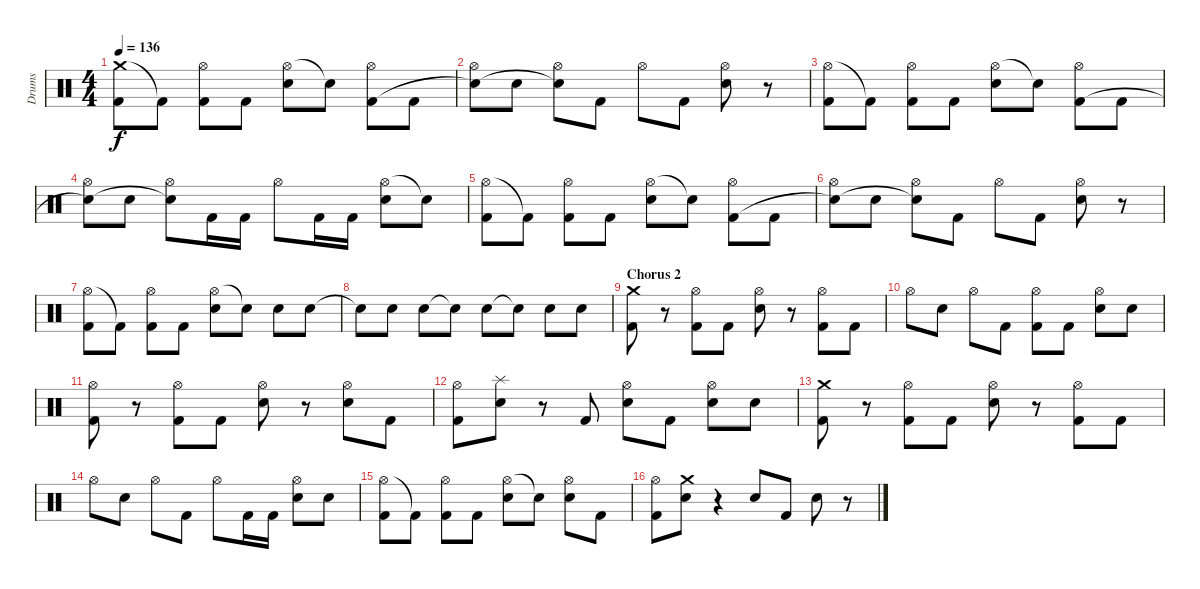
\track ("Drums" "Drums") {instrument percussion}
\staff {score}
\articulation defaults
\ts (4 4)
\tempo 136
\clef neutral
\ks c
("Crash medium (hit)" "Kick (hit) 2").8{dy f} "Kick (hit) 2"{t}.8 ("Hi-Hat (open)" "Kick (hit) 2").8 "Kick (hit) 2".8 ("Hi-Hat (open)" "Electric Snare (hit)").8 "Snare (hit)"{t}.8 ("Hi-Hat (open)" "Kick (hit) 2").8 "Kick (hit) 2".8 |
("Hi-Hat (open)" "Snare (hit)"{t}).8 "Electric Snare (hit)".8 ("Hi-Hat (open)" "Snare (hit)"{t}).8 "Kick (hit) 2".8 "Hi-Hat (open)".8 "Kick (hit) 2".8 ("Hi-Hat (open)" "Electric Snare (hit)").8 r.8 |
("Hi-Hat (open)" "Kick (hit) 2").8 "Kick (hit) 2"{t}.8 ("Hi-Hat (open)" "Kick (hit) 2").8 "Kick (hit) 2".8 ("Hi-Hat (open)" "Electric Snare (hit)").8 "Snare (hit)"{t}.8 ("Hi-Hat (open)" "Kick (hit) 2").8 "Kick (hit) 2".8 |
("Hi-Hat (open)" "Snare (hit)"{t}).8 "Electric Snare (hit)".8 ("Hi-Hat (open)" "Snare (hit)"{t}).8 "Kick (hit) 2".16 "Kick (hit) 2".16 "Hi-Hat (open)".8 "Kick (hit) 2".16 "Kick (hit) 2".16 ("Hi-Hat (open)" "Electric Snare (hit)").8 "Electric Snare (hit)"{t}.8 |
("Hi-Hat (open)" "Kick (hit) 2").8 "Kick (hit) 2"{t}.8 ("Hi-Hat (open)" "Kick (hit) 2").8 "Kick (hit) 2".8 ("Hi-Hat (open)" "Electric Snare (hit)").8 "Snare (hit)"{t}.8 ("Hi-Hat (open)" "Kick (hit) 2").8 "Kick (hit) 2".8 |
("Hi-Hat (open)" "Snare (hit)"{t}).8 "Electric Snare (hit)".8 ("Hi-Hat (open)" "Snare (hit)"{t}).8 "Kick (hit) 2".8 "Hi-Hat (open)".8 "Kick (hit) 2".8 ("Hi-Hat (open)" "Electric Snare (hit)").8 r.8 |
("Hi-Hat (open)" "Kick (hit) 2").8 "Kick (hit) 2"{t}.8 ("Hi-Hat (open)" "Kick (hit) 2").8 "Kick (hit) 2".8 ("Hi-Hat (open)" "Electric Snare (hit)").8 "Snare (hit)"{t}.8 "Electric Snare (hit)".8 "Electric Snare (hit)".8 |
"Snare (hit)"{t}.8 "Electric Snare (hit)".8 "Electric Snare (hit)".8 "Snare (hit)"{t}.8 "Electric Snare (hit)".8 "Snare (hit)"{t}.8 "Electric Snare (hit)".8 "Electric Snare (hit)".8 |
\section ("" "Chorus 2")
("Crash medium (hit)" "Kick (hit) 2").8 r.8 ("Hi-Hat (open)" "Kick (hit) 2").8 "Kick (hit) 2".8 ("Hi-Hat (open)" "Electric Snare (hit)").8 r.8 ("Hi-Hat (open)" "Kick (hit) 2").8 "Kick (hit) 2".8 |
"Hi-Hat (open)".8 "Electric Snare (hit)".8 "Hi-Hat (open)".8 "Kick (hit) 2".8 ("Hi-Hat (open)" "Kick (hit) 2").8 "Kick (hit) 2".8 ("Hi-Hat (open)" "Electric Snare (hit)").8 "Electric Snare (hit)".8 |
("Hi-Hat (open)" "Kick (hit) 2").8 r.8 ("Hi-Hat (open)" "Kick (hit) 2").8 "Kick (hit) 2".8 ("Hi-Hat (open)" "Electric Snare (hit)").8 r.8 ("Hi-Hat (open)" "Electric Snare (hit)").8 "Kick (hit) 2".8 |
("Hi-Hat (open)" "Kick (hit) 2").8 ("Splash (hit)" "Electric Snare (hit)").8 r.8 "Kick (hit) 2".8 ("Hi-Hat (open)" "Electric Snare (hit)").8 "Kick (hit) 2".8 ("Hi-Hat (open)" "Electric Snare (hit)").8 "Electric Snare (hit)".8 |
("Crash medium (hit)" "Kick (hit) 2").8 r.8 ("Hi-Hat (open)" "Kick (hit) 2").8 "Kick (hit) 2".8 ("Hi-Hat (open)" "Electric Snare (hit)").8 r.8 ("Hi-Hat (open)" "Kick (hit) 2").8 "Kick (hit) 2".8 |
"Hi-Hat (open)".8 "Electric Snare (hit)".8 "Hi-Hat (open)".8 "Kick (hit) 2".8 "Hi-Hat (open)".8 "Kick (hit) 2".16 "Kick (hit) 2".16 ("Hi-Hat (open)" "Electric Snare (hit)").8 "Electric Snare (hit)".8 |
("Hi-Hat (open)" "Kick (hit) 2").8 "Kick (hit) 2"{t}.8 ("Hi-Hat (open)" "Kick (hit) 2").8 "Kick (hit) 2".8 ("Hi-Hat (open)" "Electric Snare (hit)").8 "Snare (hit)"{t}.8 ("Hi-Hat (open)" "Electric Snare (hit)").8 "Kick (hit) 2".8 |
("Hi-Hat (open)" "Kick (hit) 2").8 ("Crash medium (hit)" "Electric Snare (hit)").8 r.4 "Electric Snare (hit)".8 "Kick (hit) 2".8 "Electric Snare (hit)".8 r.8
